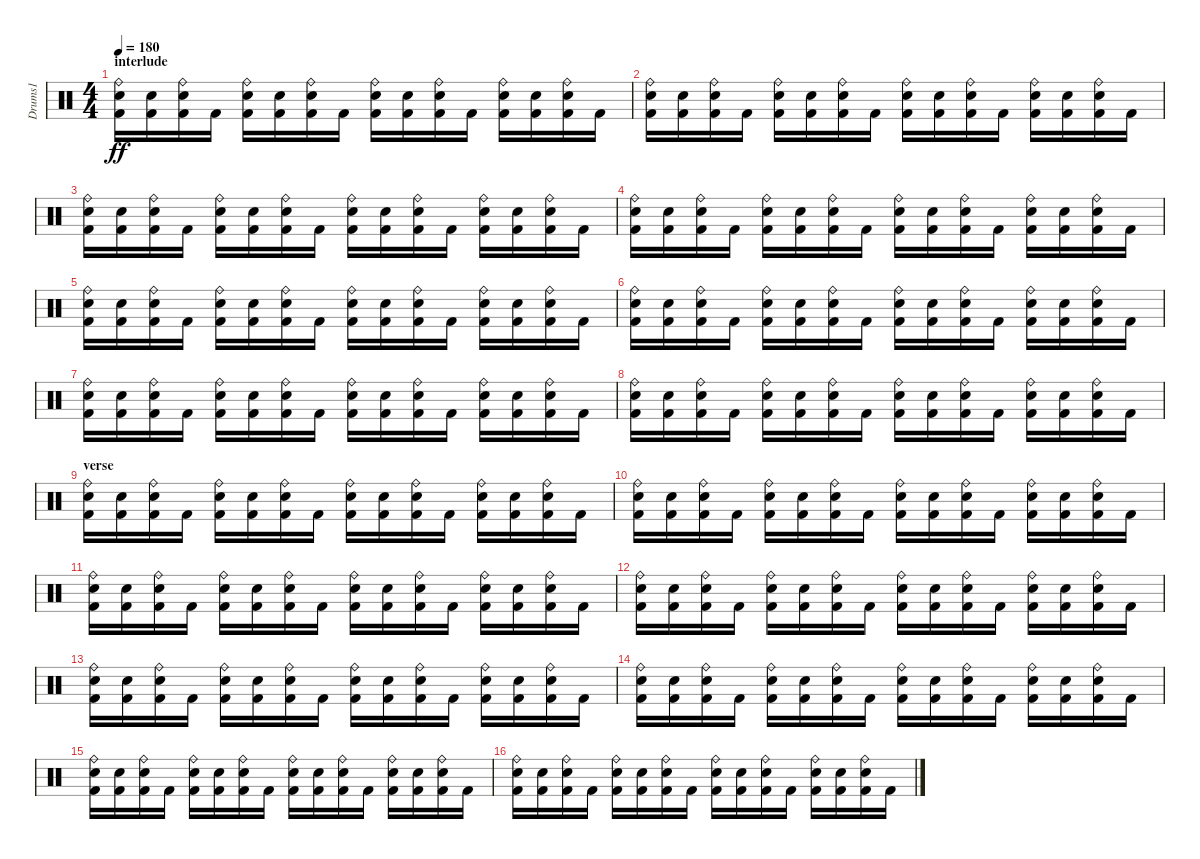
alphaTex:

\track ("Drums1" "Drums1") {instrument percussion}
\staff {score}
\articulation defaults
\ts (4 4)
\section ("" "interlude")
\tempo 180
\clef neutral
\ks c
("Ride (bell)" "Electric Snare (hit)" "Kick (hit) 2").16{dy ff} ("Electric Snare (hit)" "Kick (hit) 2").16 ("Ride (bell)" "Electric Snare (hit)" "Kick (hit) 2").16 "Kick (hit) 2".16 ("Ride (bell)" "Electric Snare (hit)" "Kick (hit) 2").16 ("Electric Snare (hit)" "Kick (hit) 2").16 ("Ride (bell)" "Electric Snare (hit)" "Kick (hit) 2").16 "Kick (hit) 2".16 ("Ride (bell)" "Electric Snare (hit)" "Kick (hit) 2").16 ("Electric Snare (hit)" "Kick (hit) 2").16 ("Ride (bell)" "Electric Snare (hit)" "Kick (hit) 2").16 "Kick (hit) 2".16 ("Ride (bell)" "Electric Snare (hit)" "Kick (hit) 2").16 ("Electric Snare (hit)" "Kick (hit) 2").16 ("Ride (bell)" "Electric Snare (hit)" "Kick (hit) 2").16 "Kick (hit) 2".16 |
("Ride (bell)" "Electric Snare (hit)" "Kick (hit) 2").16 ("Electric Snare (hit)" "Kick (hit) 2").16 ("Ride (bell)" "Electric Snare (hit)" "Kick (hit) 2").16 "Kick (hit) 2".16 ("Ride (bell)" "Electric Snare (hit)" "Kick (hit) 2").16 ("Electric Snare (hit)" "Kick (hit) 2").16 ("Ride (bell)" "Electric Snare (hit)" "Kick (hit) 2").16 "Kick (hit) 2".16 ("Ride (bell)" "Electric Snare (hit)" "Kick (hit) 2").16 ("Electric Snare (hit)" "Kick (hit) 2").16 ("Ride (bell)" "Electric Snare (hit)" "Kick (hit) 2").16 "Kick (hit) 2".16 ("Ride (bell)" "Electric Snare (hit)" "Kick (hit) 2").16 ("Electric Snare (hit)" "Kick (hit) 2").16 ("Ride (bell)" "Electric Snare (hit)" "Kick (hit) 2").16 "Kick (hit) 2".16 |
("Ride (bell)" "Electric Snare (hit)" "Kick (hit) 2").16 ("Electric Snare (hit)" "Kick (hit) 2").16 ("Ride (bell)" "Electric Snare (hit)" "Kick (hit) 2").16 "Kick (hit) 2".16 ("Ride (bell)" "Electric Snare (hit)" "Kick (hit) 2").16 ("Electric Snare (hit)" "Kick (hit) 2").16 ("Ride (bell)" "Electric Snare (hit)" "Kick (hit) 2").16 "Kick (hit) 2".16 ("Ride (bell)" "Electric Snare (hit)" "Kick (hit) 2").16 ("Electric Snare (hit)" "Kick (hit) 2").16 ("Ride (bell)" "Electric Snare (hit)" "Kick (hit) 2").16 "Kick (hit) 2".16 ("Ride (bell)" "Electric Snare (hit)" "Kick (hit) 2").16 ("Electric Snare (hit)" "Kick (hit) 2").16 ("Ride (bell)" "Electric Snare (hit)" "Kick (hit) 2").16 "Kick (hit) 2".16 |
("Ride (bell)" "Electric Snare (hit)" "Kick (hit) 2").16 ("Electric Snare (hit)" "Kick (hit) 2").16 ("Ride (bell)" "Electric Snare (hit)" "Kick (hit) 2").16 "Kick (hit) 2".16 ("Ride (bell)" "Electric Snare (hit)" "Kick (hit) 2").16 ("Electric Snare (hit)" "Kick (hit) 2").16 ("Ride (bell)" "Electric Snare (hit)" "Kick (hit) 2").16 "Kick (hit) 2".16 ("Ride (bell)" "Electric Snare (hit)" "Kick (hit) 2").16 ("Electric Snare (hit)" "Kick (hit) 2").16 ("Ride (bell)" "Electric Snare (hit)" "Kick (hit) 2").16 "Kick (hit) 2".16 ("Ride (bell)" "Electric Snare (hit)" "Kick (hit) 2").16 ("Electric Snare (hit)" "Kick (hit) 2").16 ("Ride (bell)" "Electric Snare (hit)" "Kick (hit) 2").16 "Kick (hit) 2".16 |
("Ride (bell)" "Electric Snare (hit)" "Kick (hit) 2").16 ("Electric Snare (hit)" "Kick (hit) 2").16 ("Ride (bell)" "Electric Snare (hit)" "Kick (hit) 2").16 "Kick (hit) 2".16 ("Ride (bell)" "Electric Snare (hit)" "Kick (hit) 2").16 ("Electric Snare (hit)" "Kick (hit) 2").16 ("Ride (bell)" "Electric Snare (hit)" "Kick (hit) 2").16 "Kick (hit) 2".16 ("Ride (bell)" "Electric Snare (hit)" "Kick (hit) 2").16 ("Electric Snare (hit)" "Kick (hit) 2").16 ("Ride (bell)" "Electric Snare (hit)" "Kick (hit) 2").16 "Kick (hit) 2".16 ("Ride (bell)" "Electric Snare (hit)" "Kick (hit) 2").16 ("Electric Snare (hit)" "Kick (hit) 2").16 ("Ride (bell)" "Electric Snare (hit)" "Kick (hit) 2").16 "Kick (hit) 2".16 |
("Ride (bell)" "Electric Snare (hit)" "Kick (hit) 2").16 ("Electric Snare (hit)" "Kick (hit) 2").16 ("Ride (bell)" "Electric Snare (hit)" "Kick (hit) 2").16 "Kick (hit) 2".16 ("Ride (bell)" "Electric Snare (hit)" "Kick (hit) 2").16 ("Electric Snare (hit)" "Kick (hit) 2").16 ("Ride (bell)" "Electric Snare (hit)" "Kick (hit) 2").16 "Kick (hit) 2".16 ("Ride (bell)" "Electric Snare (hit)" "Kick (hit) 2").16 ("Electric Snare (hit)" "Kick (hit) 2").16 ("Ride (bell)" "Electric Snare (hit)" "Kick (hit) 2").16 "Kick (hit) 2".16 ("Ride (bell)" "Electric Snare (hit)" "Kick (hit) 2").16 ("Electric Snare (hit)" "Kick (hit) 2").16 ("Ride (bell)" "Electric Snare (hit)" "Kick (hit) 2").16 "Kick (hit) 2".16 |
("Ride (bell)" "Electric Snare (hit)" "Kick (hit) 2").16 ("Electric Snare (hit)" "Kick (hit) 2").16 ("Ride (bell)" "Electric Snare (hit)" "Kick (hit) 2").16 "Kick (hit) 2".16 ("Ride (bell)" "Electric Snare (hit)" "Kick (hit) 2").16 ("Electric Snare (hit)" "Kick (hit) 2").16 ("Ride (bell)" "Electric Snare (hit)" "Kick (hit) 2").16 "Kick (hit) 2".16 ("Ride (bell)" "Electric Snare (hit)" "Kick (hit) 2").16 ("Electric Snare (hit)" "Kick (hit) 2").16 ("Ride (bell)" "Electric Snare (hit)" "Kick (hit) 2").16 "Kick (hit) 2".16 ("Ride (bell)" "Electric Snare (hit)" "Kick (hit) 2").16 ("Electric Snare (hit)" "Kick (hit) 2").16 ("Ride (bell)" "Electric Snare (hit)" "Kick (hit) 2").16 "Kick (hit) 2".16 |
("Ride (bell)" "Electric Snare (hit)" "Kick (hit) 2").16 ("Electric Snare (hit)" "Kick (hit) 2").16 ("Ride (bell)" "Electric Snare (hit)" "Kick (hit) 2").16 "Kick (hit) 2".16 ("Ride (bell)" "Electric Snare (hit)" "Kick (hit) 2").16 ("Electric Snare (hit)" "Kick (hit) 2").16 ("Ride (bell)" "Electric Snare (hit)" "Kick (hit) 2").16 "Kick (hit) 2".16 ("Ride (bell)" "Electric Snare (hit)" "Kick (hit) 2").16 ("Electric Snare (hit)" "Kick (hit) 2").16 ("Ride (bell)" "Electric Snare (hit)" "Kick (hit) 2").16 "Kick (hit) 2".16 ("Ride (bell)" "Electric Snare (hit)" "Kick (hit) 2").16 ("Electric Snare (hit)" "Kick (hit) 2").16 ("Ride (bell)" "Electric Snare (hit)" "Kick (hit) 2").16 "Kick (hit) 2".16 |
\section ("" "verse")
("Ride (bell)" "Electric Snare (hit)" "Kick (hit) 2").16 ("Electric Snare (hit)" "Kick (hit) 2").16 ("Ride (bell)" "Electric Snare (hit)" "Kick (hit) 2").16 "Kick (hit) 2".16 ("Ride (bell)" "Electric Snare (hit)" "Kick (hit) 2").16 ("Electric Snare (hit)" "Kick (hit) 2").16 ("Ride (bell)" "Electric Snare (hit)" "Kick (hit) 2").16 "Kick (hit) 2".16 ("Ride (bell)" "Electric Snare (hit)" "Kick (hit) 2").16 ("Electric Snare (hit)" "Kick (hit) 2").16 ("Ride (bell)" "Electric Snare (hit)" "Kick (hit) 2").16 "Kick (hit) 2".16 ("Ride (bell)" "Electric Snare (hit)" "Kick (hit) 2").16 ("Electric Snare (hit)" "Kick (hit) 2").16 ("Ride (bell)" "Electric Snare (hit)" "Kick (hit) 2").16 "Kick (hit) 2".16 |
("Ride (bell)" "Electric Snare (hit)" "Kick (hit) 2").16 ("Electric Snare (hit)" "Kick (hit) 2").16 ("Ride (bell)" "Electric Snare (hit)" "Kick (hit) 2").16 "Kick (hit) 2".16 ("Ride (bell)" "Electric Snare (hit)" "Kick (hit) 2").16 ("Electric Snare (hit)" "Kick (hit) 2").16 ("Ride (bell)" "Electric Snare (hit)" "Kick (hit) 2").16 "Kick (hit) 2".16 ("Ride (bell)" "Electric Snare (hit)" "Kick (hit) 2").16 ("Electric Snare (hit)" "Kick (hit) 2").16 ("Ride (bell)" "Electric Snare (hit)" "Kick (hit) 2").16 "Kick (hit) 2".16 ("Ride (bell)" "Electric Snare (hit)" "Kick (hit) 2").16 ("Electric Snare (hit)" "Kick (hit) 2").16 ("Ride (bell)" "Electric Snare (hit)" "Kick (hit) 2").16 "Kick (hit) 2".16 |
("Ride (bell)" "Electric Snare (hit)" "Kick (hit) 2").16 ("Electric Snare (hit)" "Kick (hit) 2").16 ("Ride (bell)" "Electric Snare (hit)" "Kick (hit) 2").16 "Kick (hit) 2".16 ("Ride (bell)" "Electric Snare (hit)" "Kick (hit) 2").16 ("Electric Snare (hit)" "Kick (hit) 2").16 ("Ride (bell)" "Electric Snare (hit)" "Kick (hit) 2").16 "Kick (hit) 2".16 ("Ride (bell)" "Electric Snare (hit)" "Kick (hit) 2").16 ("Electric Snare (hit)" "Kick (hit) 2").16 ("Ride (bell)" "Electric Snare (hit)" "Kick (hit) 2").16 "Kick (hit) 2".16 ("Ride (bell)" "Electric Snare (hit)" "Kick (hit) 2").16 ("Electric Snare (hit)" "Kick (hit) 2").16 ("Ride (bell)" "Electric Snare (hit)" "Kick (hit) 2").16 "Kick (hit) 2".16 |
("Ride (bell)" "Electric Snare (hit)" "Kick (hit) 2").16 ("Electric Snare (hit)" "Kick (hit) 2").16 ("Ride (bell)" "Electric Snare (hit)" "Kick (hit) 2").16 "Kick (hit) 2".16 ("Ride (bell)" "Electric Snare (hit)" "Kick (hit) 2").16 ("Electric Snare (hit)" "Kick (hit) 2").16 ("Ride (bell)" "Electric Snare (hit)" "Kick (hit) 2").16 "Kick (hit) 2".16 ("Ride (bell)" "Electric Snare (hit)" "Kick (hit) 2").16 ("Electric Snare (hit)" "Kick (hit) 2").16 ("Ride (bell)" "Electric Snare (hit)" "Kick (hit) 2").16 "Kick (hit) 2".16 ("Ride (bell)" "Electric Snare (hit)" "Kick (hit) 2").16 ("Electric Snare (hit)" "Kick (hit) 2").16 ("Ride (bell)" "Electric Snare (hit)" "Kick (hit) 2").16 "Kick (hit) 2".16 |
("Ride (bell)" "Electric Snare (hit)" "Kick (hit) 2").16 ("Electric Snare (hit)" "Kick (hit) 2").16 ("Ride (bell)" "Electric Snare (hit)" "Kick (hit) 2").16 "Kick (hit) 2".16 ("Ride (bell)" "Electric Snare (hit)" "Kick (hit) 2").16 ("Electric Snare (hit)" "Kick (hit) 2").16 ("Ride (bell)" "Electric Snare (hit)" "Kick (hit) 2").16 "Kick (hit) 2".16 ("Ride (bell)" "Electric Snare (hit)" "Kick (hit) 2").16 ("Electric Snare (hit)" "Kick (hit) 2").16 ("Ride (bell)" "Electric Snare (hit)" "Kick (hit) 2").16 "Kick (hit) 2".16 ("Ride (bell)" "Electric Snare (hit)" "Kick (hit) 2").16 ("Electric Snare (hit)" "Kick (hit) 2").16 ("Ride (bell)" "Electric Snare (hit)" "Kick (hit) 2").16 "Kick (hit) 2".16 |
("Ride (bell)" "Electric Snare (hit)" "Kick (hit) 2").16 ("Electric Snare (hit)" "Kick (hit) 2").16 ("Ride (bell)" "Electric Snare (hit)" "Kick (hit) 2").16 "Kick (hit) 2".16 ("Ride (bell)" "Electric Snare (hit)" "Kick (hit) 2").16 ("Electric Snare (hit)" "Kick (hit) 2").16 ("Ride (bell)" "Electric Snare (hit)" "Kick (hit) 2").16 "Kick (hit) 2".16 ("Ride (bell)" "Electric Snare (hit)" "Kick (hit) 2").16 ("Electric Snare (hit)" "Kick (hit) 2").16 ("Ride (bell)" "Electric Snare (hit)" "Kick (hit) 2").16 "Kick (hit) 2".16 ("Ride (bell)" "Electric Snare (hit)" "Kick (hit) 2").16 ("Electric Snare (hit)" "Kick (hit) 2").16 ("Ride (bell)" "Electric Snare (hit)" "Kick (hit) 2").16 "Kick (hit) 2".16 |
("Ride (bell)" "Electric Snare (hit)" "Kick (hit) 2").16 ("Electric Snare (hit)" "Kick (hit) 2").16 ("Ride (bell)" "Electric Snare (hit)" "Kick (hit) 2").16 "Kick (hit) 2".16 ("Ride (bell)" "Electric Snare (hit)" "Kick (hit) 2").16 ("Electric Snare (hit)" "Kick (hit) 2").16 ("Ride (bell)" "Electric Snare (hit)" "Kick (hit) 2").16 "Kick (hit) 2".16 ("Ride (bell)" "Electric Snare (hit)" "Kick (hit) 2").16 ("Electric Snare (hit)" "Kick (hit) 2").16 ("Ride (bell)" "Electric Snare (hit)" "Kick (hit) 2").16 "Kick (hit) 2".16 ("Ride (bell)" "Electric Snare (hit)" "Kick (hit) 2").16 ("Electric Snare (hit)" "Kick (hit) 2").16 ("Ride (bell)" "Electric Snare (hit)" "Kick (hit) 2").16 "Kick (hit) 2".16 |
("Ride (bell)" "Electric Snare (hit)" "Kick (hit) 2").16 ("Electric Snare (hit)" "Kick (hit) 2").16 ("Ride (bell)" "Electric Snare (hit)" "Kick (hit) 2").16 "Kick (hit) 2".16 ("Ride (bell)" "Electric Snare (hit)" "Kick (hit) 2").16 ("Electric Snare (hit)" "Kick (hit) 2").16 ("Ride (bell)" "Electric Snare (hit)" "Kick (hit) 2").16 "Kick (hit) 2".16 ("Ride (bell)" "Electric Snare (hit)" "Kick (hit) 2").16 ("Electric Snare (hit)" "Kick (hit) 2").16 ("Ride (bell)" "Electric Snare (hit)" "Kick (hit) 2").16 "Kick (hit) 2".16 ("Ride (bell)" "Electric Snare (hit)" "Kick (hit) 2").16 ("Electric Snare (hit)" "Kick (hit) 2").16 ("Ride (bell)" "Electric Snare (hit)" "Kick (hit) 2").16 "Kick (hit) 2".16
